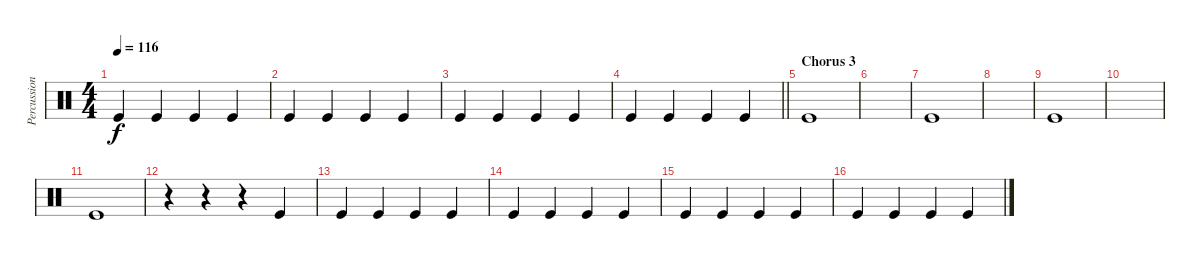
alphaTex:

\track ("Percussion" "Percussion") {instrument percussion}
\staff {score}
\articulation defaults
\ts (4 4)
\tempo 116
\clef neutral
\ks c "Kick (hit)".4{dy f} "Kick (hit)".4 "Kick (hit)".4 "Kick (hit)".4
|
"Kick (hit)".4 "Kick (hit)".4 "Kick (hit)".4 "Kick (hit)".4 |
"Kick (hit)".4 "Kick (hit)".4 "Kick (hit)".4 "Kick (hit)".4 |
\barLineRight lightlight "Kick (hit)".4 "Kick (hit)".4 "Kick (hit)".4 "Kick (hit)".4
|
\section ("" "Chorus 3")
"Kick (hit)".1 |
|
"Kick (hit)".1 |
|
"Kick (hit)".1 |
|
"Kick (hit)".1 |
r.4 r.4 r.4 "Kick (hit)".4 |
"Kick (hit)".4 "Kick (hit)".4 "Kick (hit)".4 "Kick (hit)".4 |
"Kick (hit)".4 "Kick (hit)".4 "Kick (hit)".4 "Kick (hit)".4 |
"Kick (hit)".4 "Kick (hit)".4 "Kick (hit)".4 "Kick (hit)".4 |
"Kick (hit)".4 "Kick (hit)".4 "Kick (hit)".4 "Kick (hit)".4
